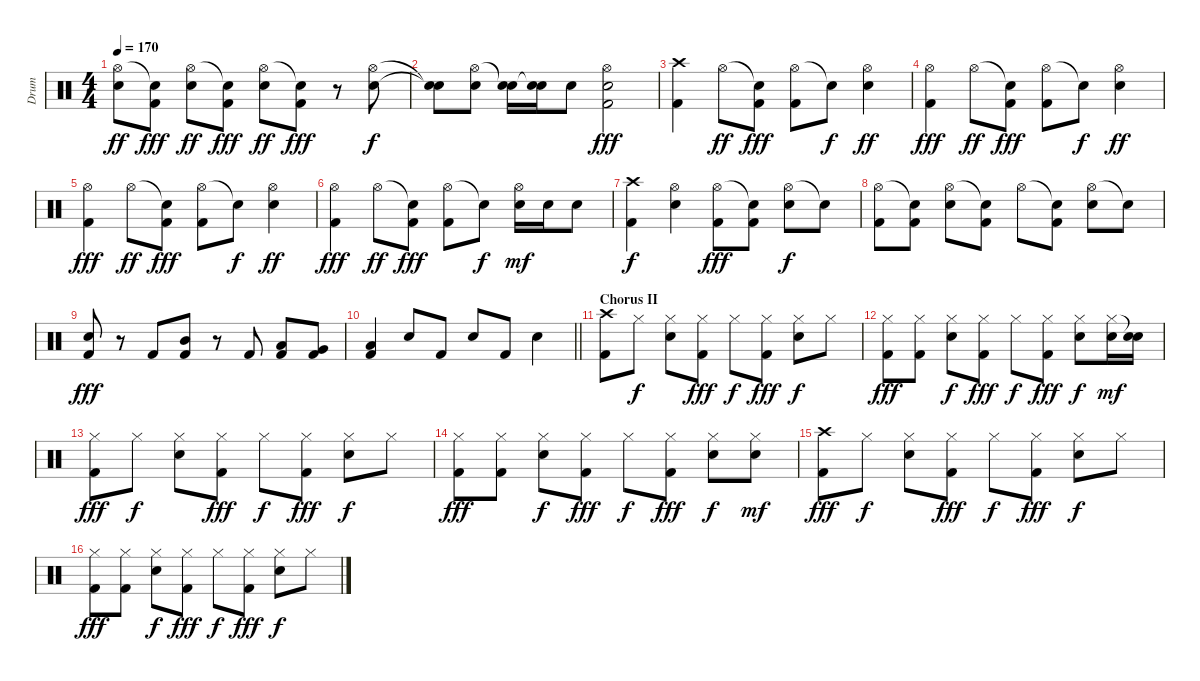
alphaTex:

\track ("Drum" "Drum") {instrument percussion}
\staff {score}
\articulation defaults
\ts (4 4)
\tempo 170
\clef neutral
\ks c
("Hi-Hat (open)" "Snare (hit) 2").8{dy ff} ("Snare (hit)"{t} "Kick (hit) 2").8{dy fff} ("Hi-Hat (open)" "Snare (hit) 2").8{dy ff} ("Snare (hit)"{t} "Kick (hit) 2").8{dy fff} ("Hi-Hat (open)" "Snare (hit) 2").8{dy ff} ("Snare (hit)"{t} "Kick (hit) 2").8{dy fff} r.8 ("Hi-Hat (open)" "Snare (hit) 2").8{dy f} |
("Snare (hit)"{t} "Snare (hit) 2"{t}).8 ("Hi-Hat (open)" "Snare (hit) 2").8 ("Snare (hit)"{t} "Snare (hit) 2").16 ("Snare (hit)"{t} "Snare (hit) 2").16 "Snare (hit) 2".8 ("Hi-Hat (open)" "Snare (hit) 2" "Kick (hit) 2").2{dy fff} |
("Crash high (hit)" "Kick (hit) 2").4 "Hi-Hat (open)".8{dy ff} ("Snare (hit)"{t} "Kick (hit) 2").8{dy fff} ("Hi-Hat (open)" "Kick (hit) 2").8 "Snare (hit)"{t}.8{dy f} ("Hi-Hat (open)" "Snare (hit) 2").4{dy ff} |
("Hi-Hat (open)" "Kick (hit) 2").4{dy fff} "Hi-Hat (open)".8{dy ff} ("Snare (hit)"{t} "Kick (hit) 2").8{dy fff} ("Hi-Hat (open)" "Kick (hit) 2").8 "Snare (hit)"{t}.8{dy f} ("Hi-Hat (open)" "Snare (hit) 2").4{dy ff} |
("Hi-Hat (open)" "Kick (hit) 2").4{dy fff} "Hi-Hat (open)".8{dy ff} ("Snare (hit)"{t} "Kick (hit) 2").8{dy fff} ("Hi-Hat (open)" "Kick (hit) 2").8 "Snare (hit)"{t}.8{dy f} ("Hi-Hat (open)" "Snare (hit) 2").4{dy ff} |
("Hi-Hat (open)" "Kick (hit) 2").4{dy fff} "Hi-Hat (open)".8{dy ff} ("Snare (hit)"{t} "Kick (hit) 2").8{dy fff} ("Hi-Hat (open)" "Kick (hit) 2").8 "Snare (hit)"{t}.8{dy f} ("Hi-Hat (open)" "Snare (hit) 2").16{dy mf} "Snare (hit) 2".16 "Snare (hit) 2".8 |
("Crash high (hit)" "Kick (hit) 2").4{dy f} ("Hi-Hat (open)" "Snare (hit) 2").4 ("Hi-Hat (open)" "Kick (hit) 2").8{dy fff} ("Snare (hit)"{t} "Kick (hit) 2").8 ("Hi-Hat (open)" "Snare (hit) 2").8{dy f} "Snare (hit)"{t}.8 |
("Hi-Hat (open)" "Kick (hit) 2").8 ("Snare (hit)"{t} "Kick (hit) 2").8 ("Hi-Hat (open)" "Snare (hit) 2").8 ("Snare (hit)"{t} "Kick (hit) 2").8 "Hi-Hat (open)".8 ("Snare (hit)"{t} "Kick (hit) 2").8 ("Hi-Hat (open)" "Snare (hit) 2").8 "Snare (hit)"{t}.8 |
("Snare (hit) 2" "Kick (hit) 2").8{dy fff} r.8 "Kick (hit) 2".8 ("Mid Tom (hit)" "Kick (hit) 2").8 r.8 "Kick (hit) 2".8 ("Low Tom (hit)" "Kick (hit) 2").8 ("Very Low Tom (hit)" "Kick (hit) 2").8 |
\barLineRight lightlight
("Low Floor Tom (hit)" "Kick (hit) 2").4 "Snare (hit) 2".8 "Kick (hit) 2".8 "Snare (hit) 2".8 "Kick (hit) 2".8 "Snare (hit) 2".4 |
\section ("" "Chorus II")
("Crash high (hit)" "Kick (hit) 2").8 "Hi-Hat (closed)".8{dy f} ("Hi-Hat (closed)" "Snare (hit) 2").8 ("Hi-Hat (closed)" "Kick (hit) 2").8{dy fff} "Hi-Hat (closed)".8{dy f} ("Hi-Hat (closed)" "Kick (hit) 2").8{dy fff} ("Hi-Hat (closed)" "Snare (hit) 2").8{dy f} "Hi-Hat (closed)".8 |
("Hi-Hat (closed)" "Kick (hit) 2").8{dy fff} ("Hi-Hat (closed)" "Kick (hit) 2").8 ("Hi-Hat (closed)" "Snare (hit) 2").8{dy f} ("Hi-Hat (closed)" "Kick (hit) 2").8{dy fff} "Hi-Hat (closed)".8{dy f} ("Hi-Hat (closed)" "Kick (hit) 2").8{dy fff} ("Hi-Hat (closed)" "Snare (hit) 2").8{dy f} ("Hi-Hat (closed)" "Snare (hit) 2").16{dy mf} ("Snare (hit)"{t} "Snare (hit) 2").16 |
("Hi-Hat (closed)" "Kick (hit) 2").8{dy fff} "Hi-Hat (closed)".8{dy f} ("Hi-Hat (closed)" "Snare (hit) 2").8 ("Hi-Hat (closed)" "Kick (hit) 2").8{dy fff} "Hi-Hat (closed)".8{dy f} ("Hi-Hat (closed)" "Kick (hit) 2").8{dy fff} ("Hi-Hat (closed)" "Snare (hit) 2").8{dy f} "Hi-Hat (closed)".8 |
("Hi-Hat (closed)" "Kick (hit) 2").8{dy fff} ("Hi-Hat (closed)" "Kick (hit) 2").8 ("Hi-Hat (closed)" "Snare (hit) 2").8{dy f} ("Hi-Hat (closed)" "Kick (hit) 2").8{dy fff} "Hi-Hat (closed)".8{dy f} ("Hi-Hat (closed)" "Kick (hit) 2").8{dy fff} ("Hi-Hat (closed)" "Snare (hit) 2").8{dy f} ("Hi-Hat (closed)" "Snare (hit) 2").8{dy mf} |
("Crash high (hit)" "Kick (hit) 2").8{dy fff} "Hi-Hat (closed)".8{dy f} ("Hi-Hat (closed)" "Snare (hit) 2").8 ("Hi-Hat (closed)" "Kick (hit) 2").8{dy fff} "Hi-Hat (closed)".8{dy f} ("Hi-Hat (closed)" "Kick (hit) 2").8{dy fff} ("Hi-Hat (closed)" "Snare (hit) 2").8{dy f} "Hi-Hat (closed)".8 |
("Hi-Hat (closed)" "Kick (hit) 2").8{dy fff} ("Hi-Hat (closed)" "Kick (hit) 2").8 ("Hi-Hat (closed)" "Snare (hit) 2").8{dy f} ("Hi-Hat (closed)" "Kick (hit) 2").8{dy fff} "Hi-Hat (closed)".8{dy f} ("Hi-Hat (closed)" "Kick (hit) 2").8{dy fff} ("Hi-Hat (closed)" "Snare (hit) 2").8{dy f} "Hi-Hat (closed)".8
